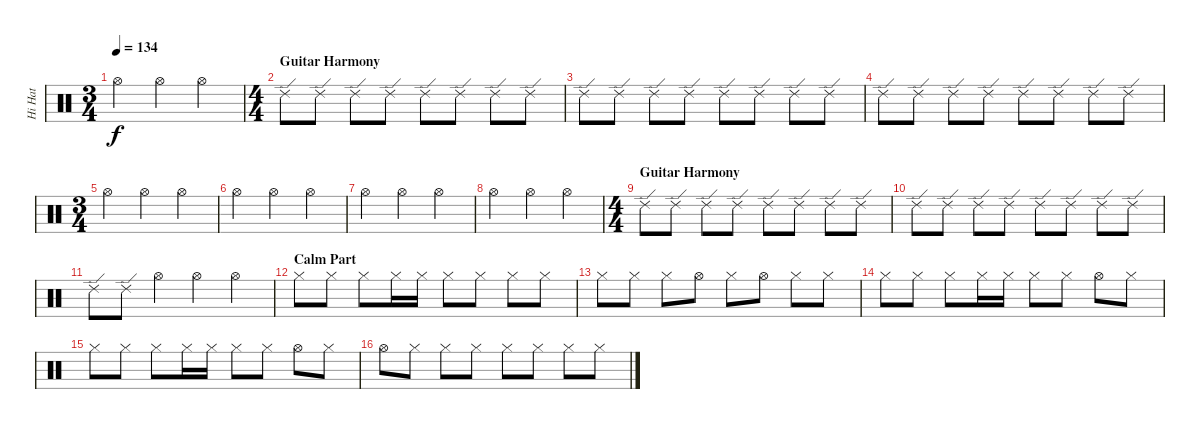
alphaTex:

\track ("Hi Hat" "Hi Hat") {instrument percussion}
\staff {score}
\articulation defaults
\ts (3 4)
\tempo 134
\clef neutral
\ks c "Hi-Hat (open)".4{dy f} "Hi-Hat (open)".4 "Hi-Hat (open)".4
|
\ts (4 4)
\section ("" "Guitar Harmony")
"Ride (edge) 2".8 "Ride (edge) 2".8 "Ride (edge) 2".8 "Ride (edge) 2".8 "Ride (edge) 2".8 "Ride (edge) 2".8 "Ride (edge) 2".8 "Ride (edge) 2".8 |
"Ride (edge) 2".8 "Ride (edge) 2".8 "Ride (edge) 2".8 "Ride (edge) 2".8 "Ride (edge) 2".8 "Ride (edge) 2".8 "Ride (edge) 2".8 "Ride (edge) 2".8 |
"Ride (edge) 2".8 "Ride (edge) 2".8 "Ride (edge) 2".8 "Ride (edge) 2".8 "Ride (edge) 2".8 "Ride (edge) 2".8 "Ride (edge) 2".8 "Ride (edge) 2".8 |
\ts (3 4)
"Hi-Hat (open)".4 "Hi-Hat (open)".4 "Hi-Hat (open)".4 |
"Hi-Hat (open)".4 "Hi-Hat (open)".4 "Hi-Hat (open)".4 |
"Hi-Hat (open)".4 "Hi-Hat (open)".4 "Hi-Hat (open)".4 |
"Hi-Hat (open)".4 "Hi-Hat (open)".4 "Hi-Hat (open)".4 |
\ts (4 4)
\section ("" "Guitar Harmony")
"Ride (edge) 2".8 "Ride (edge) 2".8 "Ride (edge) 2".8 "Ride (edge) 2".8 "Ride (edge) 2".8 "Ride (edge) 2".8 "Ride (edge) 2".8 "Ride (edge) 2".8 |
"Ride (edge) 2".8 "Ride (edge) 2".8 "Ride (edge) 2".8 "Ride (edge) 2".8 "Ride (edge) 2".8 "Ride (edge) 2".8 "Ride (edge) 2".8 "Ride (edge) 2".8 |
"Ride (edge) 2".8 "Ride (edge) 2".8 "Hi-Hat (open)".4 "Hi-Hat (open)".4 "Hi-Hat (open)".4 |
\section ("" "Calm Part")
"Hi-Hat (closed)".8 "Hi-Hat (closed)".8 "Hi-Hat (closed)".8 "Hi-Hat (closed)".16 "Hi-Hat (closed)".16 "Hi-Hat (closed)".8 "Hi-Hat (closed)".8 "Hi-Hat (closed)".8 "Hi-Hat (closed)".8 |
"Hi-Hat (closed)".8 "Hi-Hat (closed)".8 "Hi-Hat (closed)".8 "Hi-Hat (open)".8 "Hi-Hat (closed)".8 "Hi-Hat (open)".8 "Hi-Hat (closed)".8 "Hi-Hat (closed)".8 |
"Hi-Hat (closed)".8 "Hi-Hat (closed)".8 "Hi-Hat (closed)".8 "Hi-Hat (closed)".16 "Hi-Hat (closed)".16 "Hi-Hat (closed)".8 "Hi-Hat (closed)".8 "Hi-Hat (open)".8 "Hi-Hat (closed)".8 |
"Hi-Hat (closed)".8 "Hi-Hat (closed)".8 "Hi-Hat (closed)".8 "Hi-Hat (closed)".16 "Hi-Hat (closed)".16 "Hi-Hat (closed)".8 "Hi-Hat (closed)".8 "Hi-Hat (open)".8 "Hi-Hat (closed)".8 |
"Hi-Hat (open)".8 "Hi-Hat (closed)".8 "Hi-Hat (closed)".8 "Hi-Hat (closed)".8 "Hi-Hat (closed)".8 "Hi-Hat (closed)".8 "Hi-Hat (closed)".8 "Hi-Hat (closed)".8
